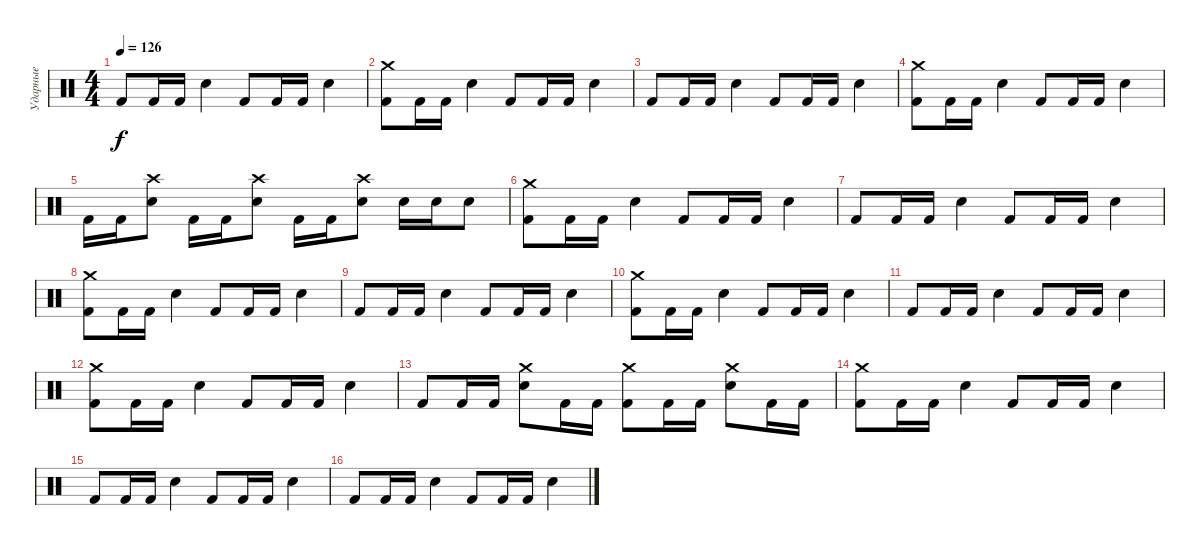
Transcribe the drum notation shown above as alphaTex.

\track ("Ударные" "Ударные") {instrument percussion}
\staff {score}
\articulation defaults
\ts (4 4)
\tempo 126
\clef neutral
\ks c "Kick (hit) 2".8{dy f} "Kick (hit) 2".16 "Kick (hit) 2".16 "Snare (hit) 2".4 "Kick (hit) 2".8 "Kick (hit) 2".16 "Kick (hit) 2".16 "Snare (hit) 2".4
|
("Kick (hit) 2" "Crash medium (hit)").8 "Kick (hit) 2".16 "Kick (hit) 2".16 "Snare (hit) 2".4 "Kick (hit) 2".8 "Kick (hit) 2".16 "Kick (hit) 2".16 "Snare (hit) 2".4 |
"Kick (hit) 2".8 "Kick (hit) 2".16 "Kick (hit) 2".16 "Snare (hit) 2".4 "Kick (hit) 2".8 "Kick (hit) 2".16 "Kick (hit) 2".16 "Snare (hit) 2".4 |
("Kick (hit) 2" "Crash medium (hit)").8 "Kick (hit) 2".16 "Kick (hit) 2".16 "Snare (hit) 2".4 "Kick (hit) 2".8 "Kick (hit) 2".16 "Kick (hit) 2".16 "Snare (hit) 2".4 |
"Kick (hit) 2".16 "Kick (hit) 2".16 ("Snare (hit) 2" "Crash high (hit)").8 "Kick (hit) 2".16 "Kick (hit) 2".16 ("Snare (hit) 2" "Crash high (hit)").8 "Kick (hit) 2".16 "Kick (hit) 2".16 ("Snare (hit) 2" "Crash high (hit)").8 "Snare (hit) 2".16 "Snare (hit) 2".16 "Snare (hit) 2".8 |
("Kick (hit) 2" "Crash medium (hit)").8 "Kick (hit) 2".16 "Kick (hit) 2".16 "Snare (hit) 2".4 "Kick (hit) 2".8 "Kick (hit) 2".16 "Kick (hit) 2".16 "Snare (hit) 2".4 |
"Kick (hit) 2".8 "Kick (hit) 2".16 "Kick (hit) 2".16 "Snare (hit) 2".4 "Kick (hit) 2".8 "Kick (hit) 2".16 "Kick (hit) 2".16 "Snare (hit) 2".4 |
("Kick (hit) 2" "Crash medium (hit)").8 "Kick (hit) 2".16 "Kick (hit) 2".16 "Snare (hit) 2".4 "Kick (hit) 2".8 "Kick (hit) 2".16 "Kick (hit) 2".16 "Snare (hit) 2".4 |
"Kick (hit) 2".8 "Kick (hit) 2".16 "Kick (hit) 2".16 "Snare (hit) 2".4 "Kick (hit) 2".8 "Kick (hit) 2".16 "Kick (hit) 2".16 "Snare (hit) 2".4 |
("Kick (hit) 2" "Crash medium (hit)").8 "Kick (hit) 2".16 "Kick (hit) 2".16 "Snare (hit) 2".4 "Kick (hit) 2".8 "Kick (hit) 2".16 "Kick (hit) 2".16 "Snare (hit) 2".4 |
"Kick (hit) 2".8 "Kick (hit) 2".16 "Kick (hit) 2".16 "Snare (hit) 2".4 "Kick (hit) 2".8 "Kick (hit) 2".16 "Kick (hit) 2".16 "Snare (hit) 2".4 |
("Kick (hit) 2" "Crash medium (hit)").8 "Kick (hit) 2".16 "Kick (hit) 2".16 "Snare (hit) 2".4 "Kick (hit) 2".8 "Kick (hit) 2".16 "Kick (hit) 2".16 "Snare (hit) 2".4 |
"Kick (hit) 2".8 "Kick (hit) 2".16 "Kick (hit) 2".16 ("Snare (hit) 2" "Crash medium (hit)").8 "Kick (hit) 2".16 "Kick (hit) 2".16 ("Kick (hit) 2" "Crash medium (hit)").8 "Kick (hit) 2".16 "Kick (hit) 2".16 ("Snare (hit) 2" "Crash medium (hit)").8 "Kick (hit) 2".16 "Kick (hit) 2".16 |
("Kick (hit) 2" "Crash medium (hit)").8 "Kick (hit) 2".16 "Kick (hit) 2".16 "Snare (hit) 2".4 "Kick (hit) 2".8 "Kick (hit) 2".16 "Kick (hit) 2".16 "Snare (hit) 2".4 |
"Kick (hit) 2".8 "Kick (hit) 2".16 "Kick (hit) 2".16 "Snare (hit) 2".4 "Kick (hit) 2".8 "Kick (hit) 2".16 "Kick (hit) 2".16 "Snare (hit) 2".4 |
"Kick (hit) 2".8 "Kick (hit) 2".16 "Kick (hit) 2".16 "Snare (hit) 2".4 "Kick (hit) 2".8 "Kick (hit) 2".16 "Kick (hit) 2".16 "Snare (hit) 2".4
